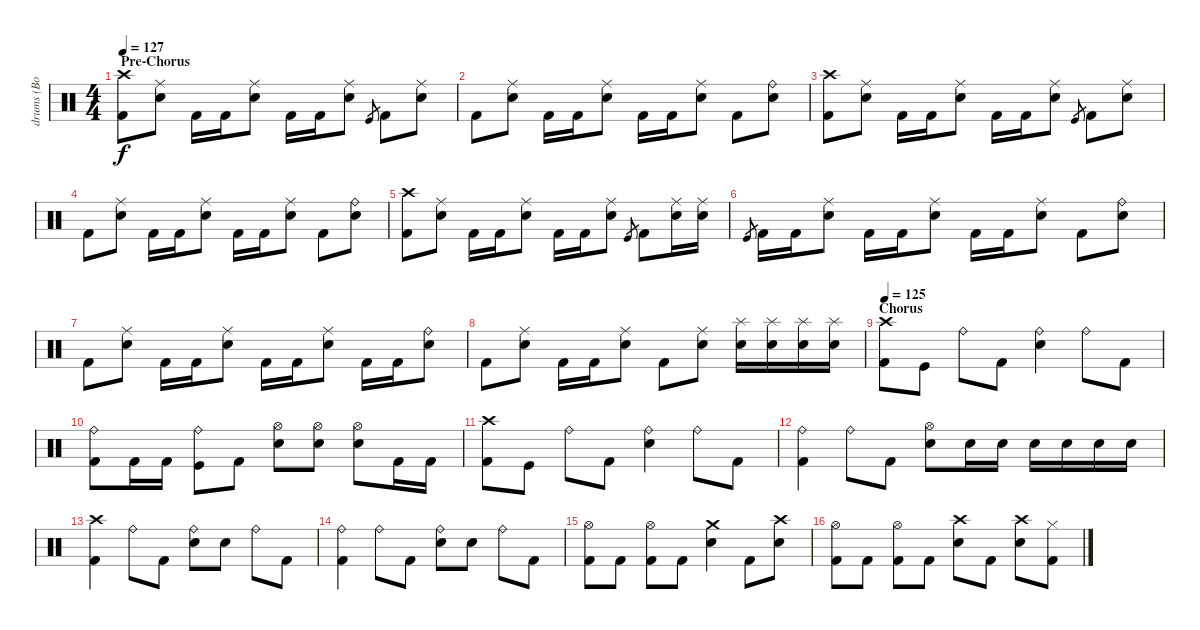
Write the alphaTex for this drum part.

\track (" drums (Bob Bryar)" " drums (Bo") {instrument percussion}
\staff {score}
\articulation defaults
\ts (4 4)
\section ("" " Pre-Chorus")
\tempo 127
\clef neutral
\ks c
("Crash high (hit)" "Kick (hit) 2").8{dy f} ("Ride (middle)" "Snare (hit) 2").8 "Kick (hit) 2".16 "Kick (hit) 2".16 ("Ride (middle)" "Snare (hit) 2").8 "Kick (hit) 2".16 "Kick (hit) 2".16 ("Ride (middle)" "Snare (hit) 2").8 "Kick (hit)".8{gr} "Kick (hit) 2".8 ("Ride (middle)" "Snare (hit) 2").8 |
"Kick (hit) 2".8 ("Ride (middle)" "Snare (hit) 2").8 "Kick (hit) 2".16 "Kick (hit) 2".16 ("Ride (middle)" "Snare (hit) 2").8 "Kick (hit) 2".16 "Kick (hit) 2".16 ("Ride (middle)" "Snare (hit) 2").8 "Kick (hit) 2".8 ("Ride (bell)" "Snare (hit) 2").8 |
("Crash high (hit)" "Kick (hit) 2").8 ("Ride (middle)" "Snare (hit) 2").8 "Kick (hit) 2".16 "Kick (hit) 2".16 ("Ride (middle)" "Snare (hit) 2").8 "Kick (hit) 2".16 "Kick (hit) 2".16 ("Ride (middle)" "Snare (hit) 2").8 "Kick (hit)".8{gr} "Kick (hit) 2".8 ("Ride (middle)" "Snare (hit) 2").8 |
"Kick (hit) 2".8 ("Ride (middle)" "Snare (hit) 2").8 "Kick (hit) 2".16 "Kick (hit) 2".16 ("Ride (middle)" "Snare (hit) 2").8 "Kick (hit) 2".16 "Kick (hit) 2".16 ("Ride (middle)" "Snare (hit) 2").8 "Kick (hit) 2".8 ("Ride (bell)" "Snare (hit) 2").8 |
("Crash high (hit)" "Kick (hit) 2").8 ("Ride (middle)" "Snare (hit) 2").8 "Kick (hit) 2".16 "Kick (hit) 2".16 ("Ride (middle)" "Snare (hit) 2").8 "Kick (hit) 2".16 "Kick (hit) 2".16 ("Ride (middle)" "Snare (hit) 2").8 "Kick (hit)".8{gr} "Kick (hit) 2".8 ("Ride (middle)" "Snare (hit) 2").16 ("Ride (middle)" "Snare (hit) 2").16 |
"Kick (hit)".8{gr} "Kick (hit) 2".16 "Kick (hit) 2".16 ("Ride (middle)" "Snare (hit) 2").8 "Kick (hit) 2".16 "Kick (hit) 2".16 ("Ride (middle)" "Snare (hit) 2").8 "Kick (hit) 2".16 "Kick (hit) 2".16 ("Ride (middle)" "Snare (hit) 2").8 "Kick (hit) 2".8 ("Ride (bell)" "Snare (hit) 2").8 |
"Kick (hit) 2".8 ("Ride (middle)" "Snare (hit) 2").8 "Kick (hit) 2".16 "Kick (hit) 2".16 ("Ride (middle)" "Snare (hit) 2").8 "Kick (hit) 2".16 "Kick (hit) 2".16 ("Ride (middle)" "Snare (hit) 2").8 "Kick (hit) 2".16 "Kick (hit) 2".16 ("Ride (bell)" "Snare (hit) 2").8 |
"Kick (hit) 2".8 ("Ride (middle)" "Snare (hit) 2").8 "Kick (hit) 2".16 "Kick (hit) 2".16 ("Ride (middle)" "Snare (hit) 2").8 "Kick (hit) 2".8 ("Ride (middle)" "Snare (hit) 2").8 ("Splash (hit)" "Snare (hit) 2").16 ("Splash (hit)" "Snare (hit) 2").16 ("Splash (hit)" "Snare (hit) 2").16 ("Splash (hit)" "Snare (hit) 2").16 |
\section ("" "Chorus")
\tempo 125
("Kick (hit) 2" "Crash high (hit)").8 "Kick (hit)".8 "Ride (bell)".8 "Kick (hit) 2".8 ("Ride (bell)" "Snare (hit) 2").4 "Ride (bell)".8 "Kick (hit) 2".8 |
("Ride (bell)" "Kick (hit) 2").8 "Kick (hit) 2".16 "Kick (hit) 2".16 ("Ride (bell)" "Kick (hit)").8 "Kick (hit) 2".8 ("Hi-Hat (open)" "Snare (hit) 2").8 ("Hi-Hat (open)" "Snare (hit) 2").8 ("Hi-Hat (open)" "Snare (hit) 2").8 "Kick (hit) 2".16 "Kick (hit) 2".16 |
("Kick (hit) 2" "Crash high (hit)").8 "Kick (hit)".8 "Ride (bell)".8 "Kick (hit) 2".8 ("Ride (bell)" "Snare (hit) 2").4 "Ride (bell)".8 "Kick (hit) 2".8 |
("Ride (bell)" "Kick (hit) 2").4 "Ride (bell)".8 "Kick (hit) 2".8 ("Hi-Hat (open)" "Snare (hit) 2").8 "Snare (hit) 2".16 "Snare (hit) 2".16 "Snare (hit) 2".16 "Snare (hit) 2".16 "Snare (hit) 2".16 "Snare (hit) 2".16 |
("Crash high (hit)" "Kick (hit) 2").4 "Ride (bell)".8 "Kick (hit) 2".8 ("Ride (bell)" "Snare (hit) 2").8 "Snare (hit) 2".8 "Ride (bell)".8 "Kick (hit) 2".8 |
("Ride (bell)" "Kick (hit) 2").4 "Ride (bell)".8 "Kick (hit) 2".8 ("Ride (bell)" "Snare (hit) 2").8 "Snare (hit) 2".8 "Ride (bell)".8 "Kick (hit) 2".8 |
("Hi-Hat (open)" "Kick (hit) 2").8 "Kick (hit) 2".8 ("Hi-Hat (open)" "Kick (hit) 2").8 "Kick (hit) 2".8 ("Crash medium (hit)" "Snare (hit) 2").4 "Kick (hit) 2".8 ("Crash high (hit)" "Snare (hit) 2").8 |
("Hi-Hat (open)" "Kick (hit) 2").8 "Kick (hit) 2".8 ("Hi-Hat (open)" "Kick (hit) 2").8 "Kick (hit) 2".8 ("Crash high (hit)" "Snare (hit) 2").8 "Kick (hit) 2".8 ("Crash high (hit)" "Snare (hit) 2").8 ("Hi-Hat (closed)" "Kick (hit) 2").8
